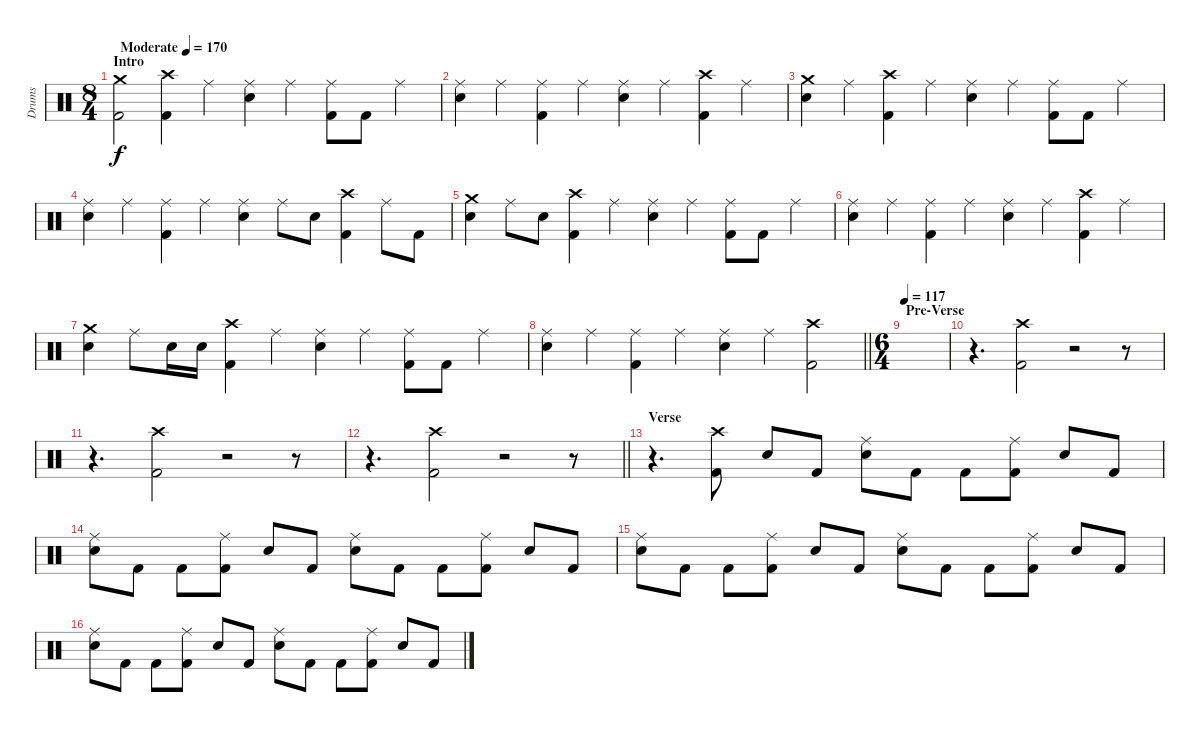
\track ("Drums" "Drums") {instrument percussion}
\staff {score}
\articulation defaults
\ts (8 4)
\section ("" "Intro")
\tempo (170 "Moderate")
\tempo 124
\tempo (170 "Moderate")
\clef neutral
\ks c
("Crash medium (hit)" "Kick (hit) 2").2{dy f} ("Crash high (hit)" "Kick (hit) 2").4 "Ride (middle)".4 ("Ride (middle)" "Snare (hit) 2").4 "Ride (middle)".4 ("Ride (middle)" "Kick (hit) 2").8 "Kick (hit) 2".8 "Ride (middle)".4 |
("Ride (middle)" "Snare (hit) 2").4 "Ride (middle)".4 ("Ride (middle)" "Kick (hit) 2").4 "Ride (middle)".4 ("Ride (middle)" "Snare (hit) 2").4 "Ride (middle)".4 ("Crash high (hit)" "Kick (hit) 2").4 "Ride (middle)".4 |
("Crash medium (hit)" "Snare (hit) 2").4 "Ride (middle)".4 ("Crash high (hit)" "Kick (hit) 2").4 "Ride (middle)".4 ("Ride (middle)" "Snare (hit) 2").4 "Ride (middle)".4 ("Ride (middle)" "Kick (hit) 2").8 "Kick (hit) 2".8 "Ride (middle)".4 |
("Ride (middle)" "Snare (hit) 2").4 "Ride (middle)".4 ("Ride (middle)" "Kick (hit) 2").4 "Ride (middle)".4 ("Ride (middle)" "Snare (hit) 2").4 "Ride (middle)".8 "Snare (hit) 2".8 ("Crash high (hit)" "Kick (hit) 2").4 "Ride (middle)".8 "Kick (hit) 2".8 |
("Crash medium (hit)" "Snare (hit) 2").4 "Ride (middle)".8 "Snare (hit) 2".8 ("Crash high (hit)" "Kick (hit) 2").4 "Ride (middle)".4 ("Ride (middle)" "Snare (hit) 2").4 "Ride (middle)".4 ("Ride (middle)" "Kick (hit) 2").8 "Kick (hit) 2".8 "Ride (middle)".4 |
("Ride (middle)" "Snare (hit) 2").4 "Ride (middle)".4 ("Ride (middle)" "Kick (hit) 2").4 "Ride (middle)".4 ("Ride (middle)" "Snare (hit) 2").4 "Ride (middle)".4 ("Crash high (hit)" "Kick (hit) 2").4 "Ride (middle)".4 |
("Crash medium (hit)" "Snare (hit) 2").4 "Ride (middle)".8 "Snare (hit) 2".16 "Snare (hit) 2".16 ("Crash high (hit)" "Kick (hit) 2").4 "Ride (middle)".4 ("Ride (middle)" "Snare (hit) 2").4 "Ride (middle)".4 ("Ride (middle)" "Kick (hit) 2").8 "Kick (hit) 2".8 "Ride (middle)".4 |
\barLineRight lightlight
("Ride (middle)" "Snare (hit) 2").4 "Ride (middle)".4 ("Ride (middle)" "Kick (hit) 2").4 "Ride (middle)".4 ("Ride (middle)" "Snare (hit) 2").4 "Ride (middle)".4 ("Crash high (hit)" "Kick (hit) 2").2 |
\ts (6 4)
\section ("" "Pre-Verse")
\tempo 117
|
r.4{d} ("Crash high (hit)" "Kick (hit) 2").2 r.2 r.8 |
r.4{d} ("Crash high (hit)" "Kick (hit) 2").2 r.2 r.8 |
\barLineRight lightlight
r.4{d} ("Crash high (hit)" "Kick (hit) 2").2 r.2 r.8 |
\section ("" "Verse")
r.4{d} ("Crash high (hit)" "Kick (hit) 2").8 "Snare (hit) 2".8 "Kick (hit) 2".8 ("Ride (middle)" "Snare (hit) 2").8 "Kick (hit) 2".8 "Kick (hit) 2".8 ("Ride (middle)" "Kick (hit) 2").8 "Snare (hit) 2".8 "Kick (hit) 2".8 |
("Ride (middle)" "Snare (hit) 2").8 "Kick (hit) 2".8 "Kick (hit) 2".8 ("Ride (middle)" "Kick (hit) 2").8 "Snare (hit) 2".8 "Kick (hit) 2".8 ("Ride (middle)" "Snare (hit) 2").8 "Kick (hit) 2".8 "Kick (hit) 2".8 ("Ride (middle)" "Kick (hit) 2").8 "Snare (hit) 2".8 "Kick (hit) 2".8 |
("Ride (middle)" "Snare (hit) 2").8 "Kick (hit) 2".8 "Kick (hit) 2".8 ("Ride (middle)" "Kick (hit) 2").8 "Snare (hit) 2".8 "Kick (hit) 2".8 ("Ride (middle)" "Snare (hit) 2").8 "Kick (hit) 2".8 "Kick (hit) 2".8 ("Ride (middle)" "Kick (hit) 2").8 "Snare (hit) 2".8 "Kick (hit) 2".8 |
("Ride (middle)" "Snare (hit) 2").8 "Kick (hit) 2".8 "Kick (hit) 2".8 ("Ride (middle)" "Kick (hit) 2").8 "Snare (hit) 2".8 "Kick (hit) 2".8 ("Ride (middle)" "Snare (hit) 2").8 "Kick (hit) 2".8 "Kick (hit) 2".8 ("Ride (middle)" "Kick (hit) 2").8 "Snare (hit) 2".8 "Kick (hit) 2".8
